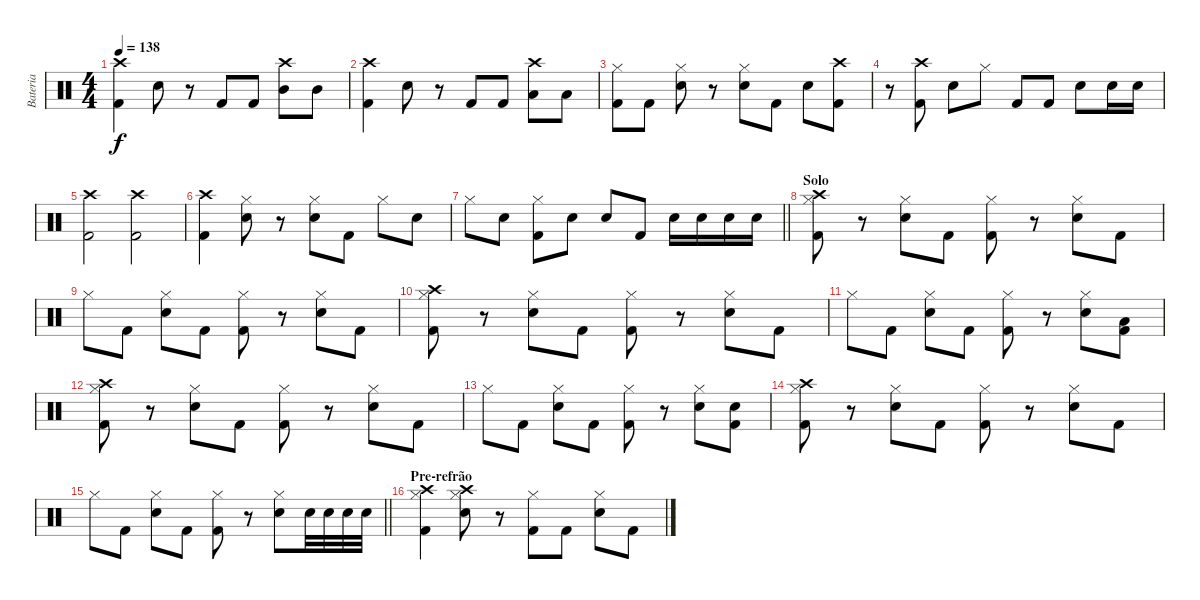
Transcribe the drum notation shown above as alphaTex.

\track ("Bateria" "Bateria") {instrument percussion}
\staff {score}
\articulation defaults
\ts (4 4)
\tempo 138
\clef neutral
\ks c
("Crash high (hit)" "Kick (hit) 2").4{dy f} "Electric Snare (hit)".8 r.8 "Kick (hit) 2".8 "Kick (hit) 2".8 ("Crash high (hit)" "Mid Tom (hit)").8 "Mid Tom (hit)".8 |
("Crash high (hit)" "Kick (hit) 2").4 "Electric Snare (hit)".8 r.8 "Kick (hit) 2".8 "Kick (hit) 2".8 ("Crash high (hit)" "Low Tom (hit)").8 "Low Tom (hit)".8 |
("Hi-Hat (closed)" "Kick (hit) 2").8 "Kick (hit) 2".8 ("Hi-Hat (closed)" "Electric Snare (hit)").8 r.8 ("Hi-Hat (closed)" "Electric Snare (hit)").8 "Kick (hit) 2".8 "Electric Snare (hit)".8 ("Crash high (hit)" "Kick (hit) 2").8 |
r.8 ("Crash high (hit)" "Kick (hit) 2").8 "Electric Snare (hit)".8 "Hi-Hat (closed)".8 "Kick (hit) 2".8 "Kick (hit) 2".8 "Electric Snare (hit)".8 "Electric Snare (hit)".16 "Electric Snare (hit)".16 |
("Crash high (hit)" "Kick (hit) 2").2 ("Crash high (hit)" "Kick (hit) 2").2 |
("Crash high (hit)" "Kick (hit) 2").4 ("Hi-Hat (closed)" "Electric Snare (hit)").8 r.8 ("Hi-Hat (closed)" "Electric Snare (hit)").8 "Kick (hit) 2".8 "Hi-Hat (closed)".8 "Electric Snare (hit)".8 |
\barLineRight lightlight "Hi-Hat (closed)".8 "Electric Snare (hit)".8
("Hi-Hat (closed)" "Kick (hit) 2").8 "Electric Snare (hit)".8 "Electric Snare (hit)".8 "Kick (hit) 2".8 "Electric Snare (hit)".16 "Electric Snare (hit)".16 "Electric Snare (hit)".16 "Electric Snare (hit)".16 |
\section ("" "Solo")
("Crash high (hit)" "Hi-Hat (closed)" "Kick (hit) 2").8 r.8 ("Hi-Hat (closed)" "Electric Snare (hit)").8 "Kick (hit) 2".8 ("Hi-Hat (closed)" "Kick (hit) 2").8 r.8 ("Hi-Hat (closed)" "Electric Snare (hit)").8 "Kick (hit) 2".8 |
"Hi-Hat (closed)".8 "Kick (hit) 2".8 ("Hi-Hat (closed)" "Electric Snare (hit)").8 "Kick (hit) 2".8 ("Hi-Hat (closed)" "Kick (hit) 2").8 r.8 ("Hi-Hat (closed)" "Electric Snare (hit)").8 "Kick (hit) 2".8 |
("Crash high (hit)" "Hi-Hat (closed)" "Kick (hit) 2").8 r.8 ("Hi-Hat (closed)" "Electric Snare (hit)").8 "Kick (hit) 2".8 ("Hi-Hat (closed)" "Kick (hit) 2").8 r.8 ("Hi-Hat (closed)" "Electric Snare (hit)").8 "Kick (hit) 2".8 |
"Hi-Hat (closed)".8 "Kick (hit) 2".8 ("Hi-Hat (closed)" "Electric Snare (hit)").8 "Kick (hit) 2".8 ("Hi-Hat (closed)" "Kick (hit) 2").8 r.8 ("Hi-Hat (closed)" "Electric Snare (hit)").8 ("Low Tom (hit)" "Kick (hit) 2").8 |
("Crash high (hit)" "Hi-Hat (closed)" "Kick (hit) 2").8 r.8 ("Hi-Hat (closed)" "Electric Snare (hit)").8 "Kick (hit) 2".8 ("Hi-Hat (closed)" "Kick (hit) 2").8 r.8 ("Hi-Hat (closed)" "Electric Snare (hit)").8 "Kick (hit) 2".8 |
"Hi-Hat (closed)".8 "Kick (hit) 2".8 ("Hi-Hat (closed)" "Electric Snare (hit)").8 "Kick (hit) 2".8 ("Hi-Hat (closed)" "Kick (hit) 2").8 r.8 ("Hi-Hat (closed)" "Electric Snare (hit)").8 ("Electric Snare (hit)" "Kick (hit) 2").8 |
("Crash high (hit)" "Hi-Hat (closed)" "Kick (hit) 2").8 r.8 ("Hi-Hat (closed)" "Electric Snare (hit)").8 "Kick (hit) 2".8 ("Hi-Hat (closed)" "Kick (hit) 2").8 r.8 ("Hi-Hat (closed)" "Electric Snare (hit)").8 "Kick (hit) 2".8 |
\barLineRight lightlight "Hi-Hat (closed)".8 "Kick (hit) 2".8
("Hi-Hat (closed)" "Electric Snare (hit)").8 "Kick (hit) 2".8 ("Hi-Hat (closed)" "Kick (hit) 2").8 r.8 ("Hi-Hat (closed)" "Electric Snare (hit)").8 "Electric Snare (hit)".32 "Electric Snare (hit)".32 "Electric Snare (hit)".32 "Electric Snare (hit)".32 |
\section ("" "Pre-refrão")
("Crash high (hit)" "Hi-Hat (closed)" "Kick (hit) 2").4 ("Crash high (hit)" "Hi-Hat (closed)" "Electric Snare (hit)").8 r.8 ("Hi-Hat (closed)" "Kick (hit) 2").8 "Kick (hit) 2".8 ("Hi-Hat (closed)" "Electric Snare (hit)").8 "Kick (hit) 2".8
